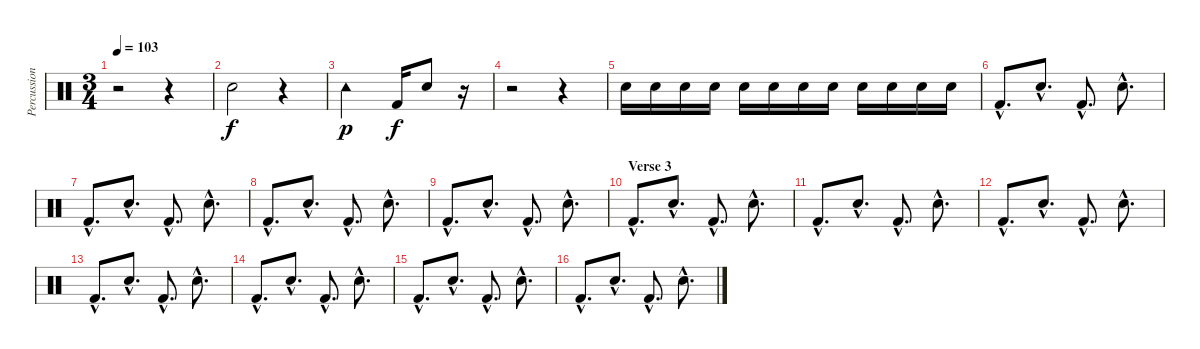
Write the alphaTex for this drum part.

\track ("Percussion" "Percussion") {instrument percussion}
\staff {score}
\articulation defaults
\ts (3 4)
\tempo 103
\clef neutral
\ks c
r.2{dy f} r.4 |
"Electric Snare (hit)".2 r.4 |
"Tambourine (hit)".2{dy p} "Kick (hit) 2".16{dy f} "Electric Snare (hit)".8 r.16 |
r.2 r.4 |
"Electric Snare (hit)".16 "Electric Snare (hit)".16 "Electric Snare (hit)".16 "Electric Snare (hit)".16 "Electric Snare (hit)".16 "Electric Snare (hit)".16 "Electric Snare (hit)".16 "Electric Snare (hit)".16 "Electric Snare (hit)".16 "Electric Snare (hit)".16 "Electric Snare (hit)".16 "Electric Snare (hit)".16 |
"Kick (hit) 2"{hac}.8{d} "Electric Snare (hit)"{hac}.8{d} "Kick (hit) 2"{hac}.8{d} "Electric Snare (hit)"{hac}.8{d} |
"Kick (hit) 2"{hac}.8{d} "Electric Snare (hit)"{hac}.8{d} "Kick (hit) 2"{hac}.8{d} "Electric Snare (hit)"{hac}.8{d} |
"Kick (hit) 2"{hac}.8{d} "Electric Snare (hit)"{hac}.8{d} "Kick (hit) 2"{hac}.8{d} "Electric Snare (hit)"{hac}.8{d} |
"Kick (hit) 2"{hac}.8{d} "Electric Snare (hit)"{hac}.8{d} "Kick (hit) 2"{hac}.8{d} "Electric Snare (hit)"{hac}.8{d} |
\section ("" "Verse 3")
"Kick (hit) 2"{hac}.8{d} "Electric Snare (hit)"{hac}.8{d} "Kick (hit) 2"{hac}.8{d} "Electric Snare (hit)"{hac}.8{d} |
"Kick (hit) 2"{hac}.8{d} "Electric Snare (hit)"{hac}.8{d} "Kick (hit) 2"{hac}.8{d} "Electric Snare (hit)"{hac}.8{d} |
"Kick (hit) 2"{hac}.8{d} "Electric Snare (hit)"{hac}.8{d} "Kick (hit) 2"{hac}.8{d} "Electric Snare (hit)"{hac}.8{d} |
"Kick (hit) 2"{hac}.8{d} "Electric Snare (hit)"{hac}.8{d} "Kick (hit) 2"{hac}.8{d} "Electric Snare (hit)"{hac}.8{d} |
"Kick (hit) 2"{hac}.8{d} "Electric Snare (hit)"{hac}.8{d} "Kick (hit) 2"{hac}.8{d} "Electric Snare (hit)"{hac}.8{d} |
"Kick (hit) 2"{hac}.8{d} "Electric Snare (hit)"{hac}.8{d} "Kick (hit) 2"{hac}.8{d} "Electric Snare (hit)"{hac}.8{d} |
"Kick (hit) 2"{hac}.8{d} "Electric Snare (hit)"{hac}.8{d} "Kick (hit) 2"{hac}.8{d} "Electric Snare (hit)"{hac}.8{d}
